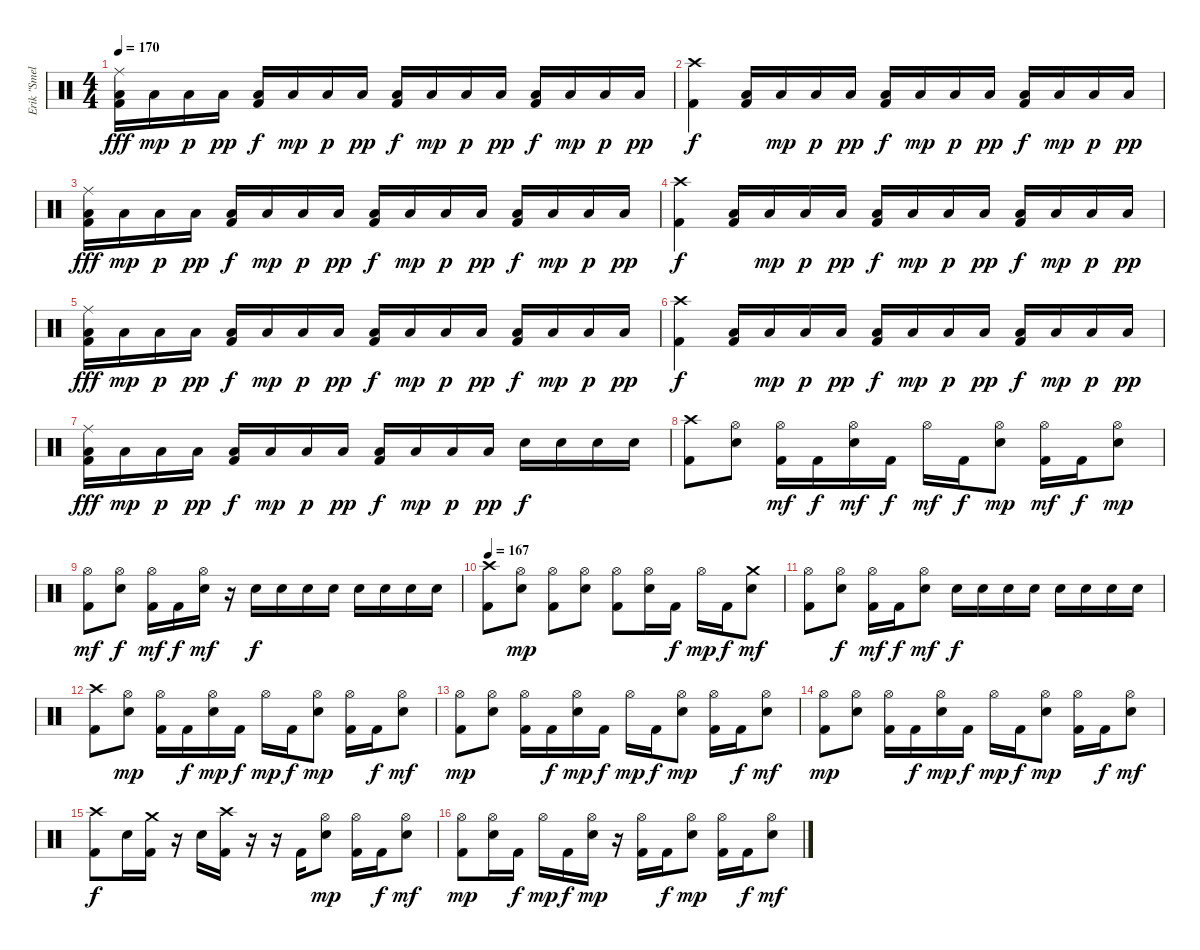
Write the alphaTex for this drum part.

\track ("Erik \"Smelly\" - Drums" "Erik \"Smel") {instrument percussion}
\staff {score}
\articulation defaults
\ts (4 4)
\tempo 170
\clef neutral
\ks c
("Ride (middle)" "Low Tom (hit)" "Kick (hit) 2").16{dy fff} "Low Tom (hit)".16{dy mp} "Low Tom (hit)".16{dy p} "Low Tom (hit)".16{dy pp} ("Low Tom (hit)" "Kick (hit) 2").16{dy f} "Low Tom (hit)".16{dy mp} "Low Tom (hit)".16{dy p} "Low Tom (hit)".16{dy pp} ("Low Tom (hit)" "Kick (hit) 2").16{dy f} "Low Tom (hit)".16{dy mp} "Low Tom (hit)".16{dy p} "Low Tom (hit)".16{dy pp} ("Low Tom (hit)" "Kick (hit) 2").16{dy f} "Low Tom (hit)".16{dy mp} "Low Tom (hit)".16{dy p} "Low Tom (hit)".16{dy pp} |
("Crash high (hit)" "Kick (hit) 2").4{dy f} ("Low Tom (hit)" "Kick (hit) 2").16 "Low Tom (hit)".16{dy mp} "Low Tom (hit)".16{dy p} "Low Tom (hit)".16{dy pp} ("Low Tom (hit)" "Kick (hit) 2").16{dy f} "Low Tom (hit)".16{dy mp} "Low Tom (hit)".16{dy p} "Low Tom (hit)".16{dy pp} ("Low Tom (hit)" "Kick (hit) 2").16{dy f} "Low Tom (hit)".16{dy mp} "Low Tom (hit)".16{dy p} "Low Tom (hit)".16{dy pp} |
("Ride (middle)" "Low Tom (hit)" "Kick (hit) 2").16{dy fff} "Low Tom (hit)".16{dy mp} "Low Tom (hit)".16{dy p} "Low Tom (hit)".16{dy pp} ("Low Tom (hit)" "Kick (hit) 2").16{dy f} "Low Tom (hit)".16{dy mp} "Low Tom (hit)".16{dy p} "Low Tom (hit)".16{dy pp} ("Low Tom (hit)" "Kick (hit) 2").16{dy f} "Low Tom (hit)".16{dy mp} "Low Tom (hit)".16{dy p} "Low Tom (hit)".16{dy pp} ("Low Tom (hit)" "Kick (hit) 2").16{dy f} "Low Tom (hit)".16{dy mp} "Low Tom (hit)".16{dy p} "Low Tom (hit)".16{dy pp} |
("Crash high (hit)" "Kick (hit) 2").4{dy f} ("Low Tom (hit)" "Kick (hit) 2").16 "Low Tom (hit)".16{dy mp} "Low Tom (hit)".16{dy p} "Low Tom (hit)".16{dy pp} ("Low Tom (hit)" "Kick (hit) 2").16{dy f} "Low Tom (hit)".16{dy mp} "Low Tom (hit)".16{dy p} "Low Tom (hit)".16{dy pp} ("Low Tom (hit)" "Kick (hit) 2").16{dy f} "Low Tom (hit)".16{dy mp} "Low Tom (hit)".16{dy p} "Low Tom (hit)".16{dy pp} |
("Ride (middle)" "Low Tom (hit)" "Kick (hit) 2").16{dy fff} "Low Tom (hit)".16{dy mp} "Low Tom (hit)".16{dy p} "Low Tom (hit)".16{dy pp} ("Low Tom (hit)" "Kick (hit) 2").16{dy f} "Low Tom (hit)".16{dy mp} "Low Tom (hit)".16{dy p} "Low Tom (hit)".16{dy pp} ("Low Tom (hit)" "Kick (hit) 2").16{dy f} "Low Tom (hit)".16{dy mp} "Low Tom (hit)".16{dy p} "Low Tom (hit)".16{dy pp} ("Low Tom (hit)" "Kick (hit) 2").16{dy f} "Low Tom (hit)".16{dy mp} "Low Tom (hit)".16{dy p} "Low Tom (hit)".16{dy pp} |
("Crash high (hit)" "Kick (hit) 2").4{dy f} ("Low Tom (hit)" "Kick (hit) 2").16 "Low Tom (hit)".16{dy mp} "Low Tom (hit)".16{dy p} "Low Tom (hit)".16{dy pp} ("Low Tom (hit)" "Kick (hit) 2").16{dy f} "Low Tom (hit)".16{dy mp} "Low Tom (hit)".16{dy p} "Low Tom (hit)".16{dy pp} ("Low Tom (hit)" "Kick (hit) 2").16{dy f} "Low Tom (hit)".16{dy mp} "Low Tom (hit)".16{dy p} "Low Tom (hit)".16{dy pp} |
("Ride (middle)" "Low Tom (hit)" "Kick (hit) 2").16{dy fff} "Low Tom (hit)".16{dy mp} "Low Tom (hit)".16{dy p} "Low Tom (hit)".16{dy pp} ("Low Tom (hit)" "Kick (hit) 2").16{dy f} "Low Tom (hit)".16{dy mp} "Low Tom (hit)".16{dy p} "Low Tom (hit)".16{dy pp} ("Low Tom (hit)" "Kick (hit) 2").16{dy f} "Low Tom (hit)".16{dy mp} "Low Tom (hit)".16{dy p} "Low Tom (hit)".16{dy pp} "Electric Snare (hit)".16{dy f} "Electric Snare (hit)".16 "Electric Snare (hit)".16 "Electric Snare (hit)".16 |
("Crash high (hit)" "Kick (hit) 2").8 ("Hi-Hat (open)" "Electric Snare (hit)").8 ("Hi-Hat (open)" "Kick (hit) 2").16{dy mf} "Kick (hit) 2".16{dy f} ("Hi-Hat (open)" "Electric Snare (hit)").16{dy mf} "Kick (hit) 2".16{dy f} "Hi-Hat (open)".16{dy mf} "Kick (hit) 2".16{dy f} ("Hi-Hat (open)" "Electric Snare (hit)").8{dy mp} ("Hi-Hat (open)" "Kick (hit) 2").16{dy mf} "Kick (hit) 2".16{dy f} ("Hi-Hat (open)" "Electric Snare (hit)").8{dy mp} |
("Hi-Hat (open)" "Kick (hit) 2").8{dy mf} ("Hi-Hat (open)" "Electric Snare (hit)").8{dy f} ("Hi-Hat (open)" "Kick (hit) 2").16{dy mf} "Kick (hit) 2".16{dy f} ("Hi-Hat (open)" "Electric Snare (hit)").16{dy mf} r.16 "Electric Snare (hit)".16{dy f} "Electric Snare (hit)".16 "Electric Snare (hit)".16 "Electric Snare (hit)".16 "Electric Snare (hit)".16 "Electric Snare (hit)".16 "Electric Snare (hit)".16 "Electric Snare (hit)".16 |
\tempo 167
("Crash high (hit)" "Kick (hit) 2").8 ("Hi-Hat (open)" "Electric Snare (hit)").8{dy mp} ("Hi-Hat (open)" "Kick (hit) 2").8 ("Hi-Hat (open)" "Electric Snare (hit)").8 ("Hi-Hat (open)" "Kick (hit) 2").8 ("Hi-Hat (open)" "Electric Snare (hit)").16 "Kick (hit) 2".16{dy f} "Hi-Hat (open)".16{dy mp} "Kick (hit) 2".16{dy f} ("Crash medium (hit)" "Electric Snare (hit)").8{dy mf} |
("Hi-Hat (open)" "Kick (hit) 2").8 ("Hi-Hat (open)" "Electric Snare (hit)").8{dy f} ("Hi-Hat (open)" "Kick (hit) 2").16{dy mf} "Kick (hit) 2".16{dy f} ("Hi-Hat (open)" "Electric Snare (hit)").8{dy mf} "Electric Snare (hit)".16{dy f} "Electric Snare (hit)".16 "Electric Snare (hit)".16 "Electric Snare (hit)".16 "Electric Snare (hit)".16 "Electric Snare (hit)".16 "Electric Snare (hit)".16 "Electric Snare (hit)".16 |
("Crash high (hit)" "Kick (hit) 2").8 ("Hi-Hat (open)" "Electric Snare (hit)").8{dy mp} ("Hi-Hat (open)" "Kick (hit) 2").16 "Kick (hit) 2".16{dy f} ("Hi-Hat (open)" "Electric Snare (hit)").16{dy mp} "Kick (hit) 2".16{dy f} "Hi-Hat (open)".16{dy mp} "Kick (hit) 2".16{dy f} ("Hi-Hat (open)" "Electric Snare (hit)").8{dy mp} ("Hi-Hat (open)" "Kick (hit) 2").16 "Kick (hit) 2".16{dy f} ("Hi-Hat (open)" "Electric Snare (hit)").8{dy mf} |
("Hi-Hat (open)" "Kick (hit) 2").8{dy mp} ("Hi-Hat (open)" "Electric Snare (hit)").8 ("Hi-Hat (open)" "Kick (hit) 2").16 "Kick (hit) 2".16{dy f} ("Hi-Hat (open)" "Electric Snare (hit)").16{dy mp} "Kick (hit) 2".16{dy f} "Hi-Hat (open)".16{dy mp} "Kick (hit) 2".16{dy f} ("Hi-Hat (open)" "Electric Snare (hit)").8{dy mp} ("Hi-Hat (open)" "Kick (hit) 2").16 "Kick (hit) 2".16{dy f} ("Hi-Hat (open)" "Electric Snare (hit)").8{dy mf} |
("Hi-Hat (open)" "Kick (hit) 2").8{dy mp} ("Hi-Hat (open)" "Electric Snare (hit)").8 ("Hi-Hat (open)" "Kick (hit) 2").16 "Kick (hit) 2".16{dy f} ("Hi-Hat (open)" "Electric Snare (hit)").16{dy mp} "Kick (hit) 2".16{dy f} "Hi-Hat (open)".16{dy mp} "Kick (hit) 2".16{dy f} ("Hi-Hat (open)" "Electric Snare (hit)").8{dy mp} ("Hi-Hat (open)" "Kick (hit) 2").16 "Kick (hit) 2".16{dy f} ("Hi-Hat (open)" "Electric Snare (hit)").8{dy mf} |
("Crash high (hit)" "Kick (hit) 2").8{dy f} "Electric Snare (hit)".16 ("Crash medium (hit)" "Kick (hit) 2").16 r.16 "Electric Snare (hit)".16 ("Crash high (hit)" "Kick (hit) 2").16 r.16 r.16 "Kick (hit) 2".16 ("Hi-Hat (open)" "Electric Snare (hit)").8{dy mp} ("Hi-Hat (open)" "Kick (hit) 2").16 "Kick (hit) 2".16{dy f} ("Hi-Hat (open)" "Electric Snare (hit)").8{dy mf} |
("Hi-Hat (open)" "Kick (hit) 2").8{dy mp} ("Hi-Hat (open)" "Electric Snare (hit)").16 "Kick (hit) 2".16{dy f} "Hi-Hat (open)".16{dy mp} "Kick (hit) 2".16{dy f} ("Hi-Hat (open)" "Electric Snare (hit)").16{dy mp} r.16 ("Hi-Hat (open)" "Kick (hit) 2").16 "Kick (hit) 2".16{dy f} ("Hi-Hat (open)" "Electric Snare (hit)").8{dy mp} ("Hi-Hat (open)" "Kick (hit) 2").16 "Kick (hit) 2".16{dy f} ("Hi-Hat (open)" "Electric Snare (hit)").8{dy mf}
